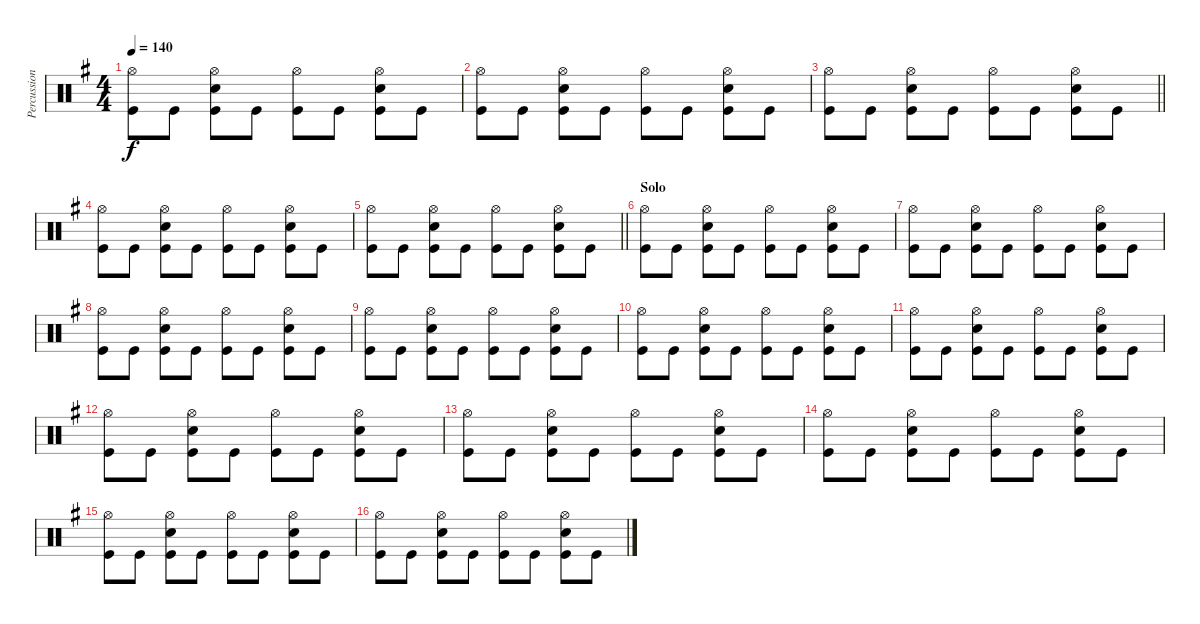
\track ("Percussion" "Percussion") {instrument percussion}
\staff {score}
\articulation defaults
\ts (4 4)
\tempo 140
\clef neutral
\ks g
("Hi-Hat (open)" "Kick (hit)").8{dy f} "Kick (hit)".8 ("Hi-Hat (open)" "Snare (hit) 2" "Kick (hit)").8 "Kick (hit)".8 ("Hi-Hat (open)" "Kick (hit)").8 "Kick (hit)".8 ("Hi-Hat (open)" "Snare (hit) 2" "Kick (hit)").8 "Kick (hit)".8 |
("Hi-Hat (open)" "Kick (hit)").8 "Kick (hit)".8 ("Hi-Hat (open)" "Snare (hit) 2" "Kick (hit)").8 "Kick (hit)".8 ("Hi-Hat (open)" "Kick (hit)").8 "Kick (hit)".8 ("Hi-Hat (open)" "Snare (hit) 2" "Kick (hit)").8 "Kick (hit)".8 |
\barLineRight lightlight
("Hi-Hat (open)" "Kick (hit)").8 "Kick (hit)".8 ("Hi-Hat (open)" "Snare (hit) 2" "Kick (hit)").8 "Kick (hit)".8 ("Hi-Hat (open)" "Kick (hit)").8 "Kick (hit)".8 ("Hi-Hat (open)" "Snare (hit) 2" "Kick (hit)").8 "Kick (hit)".8 |
("Hi-Hat (open)" "Kick (hit)").8 "Kick (hit)".8 ("Hi-Hat (open)" "Snare (hit) 2" "Kick (hit)").8 "Kick (hit)".8 ("Hi-Hat (open)" "Kick (hit)").8 "Kick (hit)".8 ("Hi-Hat (open)" "Snare (hit) 2" "Kick (hit)").8 "Kick (hit)".8 |
\barLineRight lightlight
("Hi-Hat (open)" "Kick (hit)").8 "Kick (hit)".8 ("Hi-Hat (open)" "Snare (hit) 2" "Kick (hit)").8 "Kick (hit)".8 ("Hi-Hat (open)" "Kick (hit)").8 "Kick (hit)".8 ("Hi-Hat (open)" "Snare (hit) 2" "Kick (hit)").8 "Kick (hit)".8 |
\section ("" "Solo")
("Hi-Hat (open)" "Kick (hit)").8 "Kick (hit)".8 ("Hi-Hat (open)" "Snare (hit) 2" "Kick (hit)").8 "Kick (hit)".8 ("Hi-Hat (open)" "Kick (hit)").8 "Kick (hit)".8 ("Hi-Hat (open)" "Snare (hit) 2" "Kick (hit)").8 "Kick (hit)".8 |
("Hi-Hat (open)" "Kick (hit)").8 "Kick (hit)".8 ("Hi-Hat (open)" "Snare (hit) 2" "Kick (hit)").8 "Kick (hit)".8 ("Hi-Hat (open)" "Kick (hit)").8 "Kick (hit)".8 ("Hi-Hat (open)" "Snare (hit) 2" "Kick (hit)").8 "Kick (hit)".8 |
("Hi-Hat (open)" "Kick (hit)").8 "Kick (hit)".8 ("Hi-Hat (open)" "Snare (hit) 2" "Kick (hit)").8 "Kick (hit)".8 ("Hi-Hat (open)" "Kick (hit)").8 "Kick (hit)".8 ("Hi-Hat (open)" "Snare (hit) 2" "Kick (hit)").8 "Kick (hit)".8 |
("Hi-Hat (open)" "Kick (hit)").8 "Kick (hit)".8 ("Hi-Hat (open)" "Snare (hit) 2" "Kick (hit)").8 "Kick (hit)".8 ("Hi-Hat (open)" "Kick (hit)").8 "Kick (hit)".8 ("Hi-Hat (open)" "Snare (hit) 2" "Kick (hit)").8 "Kick (hit)".8 |
("Hi-Hat (open)" "Kick (hit)").8 "Kick (hit)".8 ("Hi-Hat (open)" "Snare (hit) 2" "Kick (hit)").8 "Kick (hit)".8 ("Hi-Hat (open)" "Kick (hit)").8 "Kick (hit)".8 ("Hi-Hat (open)" "Snare (hit) 2" "Kick (hit)").8 "Kick (hit)".8 |
("Hi-Hat (open)" "Kick (hit)").8 "Kick (hit)".8 ("Hi-Hat (open)" "Snare (hit) 2" "Kick (hit)").8 "Kick (hit)".8 ("Hi-Hat (open)" "Kick (hit)").8 "Kick (hit)".8 ("Hi-Hat (open)" "Snare (hit) 2" "Kick (hit)").8 "Kick (hit)".8 |
("Hi-Hat (open)" "Kick (hit)").8 "Kick (hit)".8 ("Hi-Hat (open)" "Snare (hit) 2" "Kick (hit)").8 "Kick (hit)".8 ("Hi-Hat (open)" "Kick (hit)").8 "Kick (hit)".8 ("Hi-Hat (open)" "Snare (hit) 2" "Kick (hit)").8 "Kick (hit)".8 |
("Hi-Hat (open)" "Kick (hit)").8 "Kick (hit)".8 ("Hi-Hat (open)" "Snare (hit) 2" "Kick (hit)").8 "Kick (hit)".8 ("Hi-Hat (open)" "Kick (hit)").8 "Kick (hit)".8 ("Hi-Hat (open)" "Snare (hit) 2" "Kick (hit)").8 "Kick (hit)".8 |
("Hi-Hat (open)" "Kick (hit)").8 "Kick (hit)".8 ("Hi-Hat (open)" "Snare (hit) 2" "Kick (hit)").8 "Kick (hit)".8 ("Hi-Hat (open)" "Kick (hit)").8 "Kick (hit)".8 ("Hi-Hat (open)" "Snare (hit) 2" "Kick (hit)").8 "Kick (hit)".8 |
("Hi-Hat (open)" "Kick (hit)").8 "Kick (hit)".8 ("Hi-Hat (open)" "Snare (hit) 2" "Kick (hit)").8 "Kick (hit)".8 ("Hi-Hat (open)" "Kick (hit)").8 "Kick (hit)".8 ("Hi-Hat (open)" "Snare (hit) 2" "Kick (hit)").8 "Kick (hit)".8 |
("Hi-Hat (open)" "Kick (hit)").8 "Kick (hit)".8 ("Hi-Hat (open)" "Snare (hit) 2" "Kick (hit)").8 "Kick (hit)".8 ("Hi-Hat (open)" "Kick (hit)").8 "Kick (hit)".8 ("Hi-Hat (open)" "Snare (hit) 2" "Kick (hit)").8 "Kick (hit)".8
